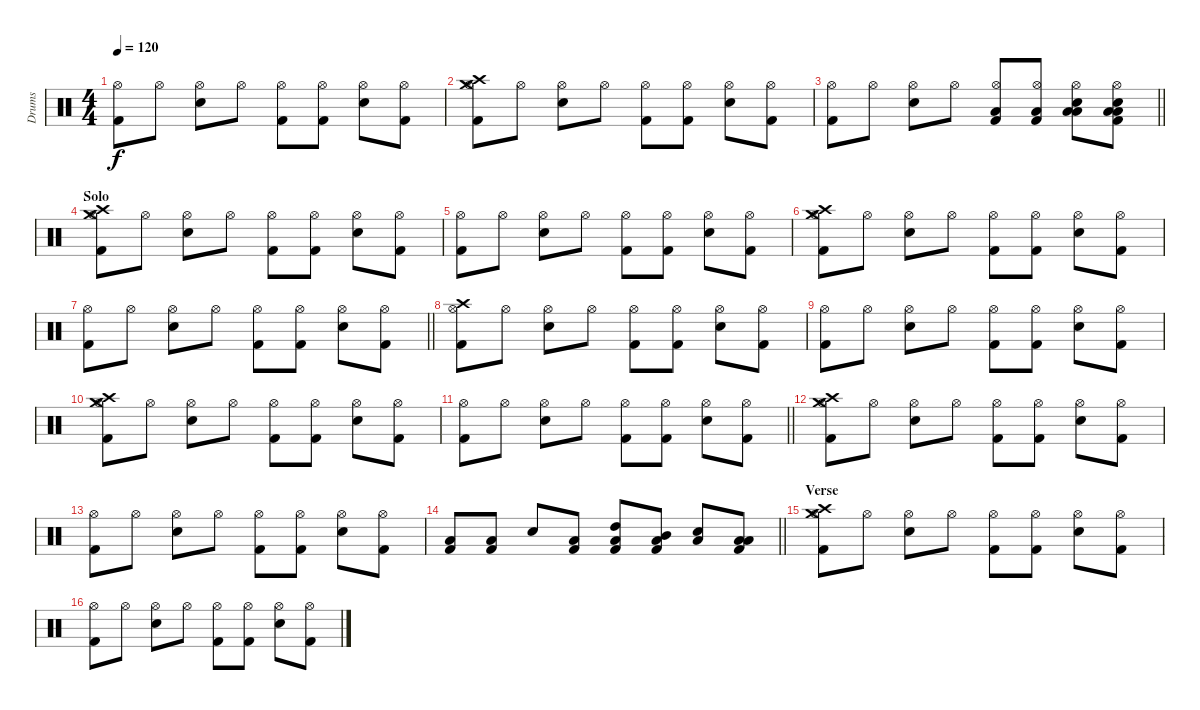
\track ("Drums" "Drums") {instrument percussion}
\staff {score}
\articulation defaults
\ts (4 4)
\tempo 120
\clef neutral
\ks c
("Kick (hit) 2" "Hi-Hat (open)").8{dy f} "Hi-Hat (open)".8 ("Snare (hit) 2" "Hi-Hat (open)").8 "Hi-Hat (open)".8 ("Kick (hit) 2" "Hi-Hat (open)").8 ("Kick (hit) 2" "Hi-Hat (open)").8 ("Snare (hit) 2" "Hi-Hat (open)").8 ("Kick (hit) 2" "Hi-Hat (open)").8 |
("Crash high (hit)" "Crash medium (hit)" "Kick (hit) 2" "Hi-Hat (open)").8 "Hi-Hat (open)".8 ("Snare (hit) 2" "Hi-Hat (open)").8 "Hi-Hat (open)".8 ("Kick (hit) 2" "Hi-Hat (open)").8 ("Kick (hit) 2" "Hi-Hat (open)").8 ("Snare (hit) 2" "Hi-Hat (open)").8 ("Kick (hit) 2" "Hi-Hat (open)").8 |
\barLineRight lightlight
("Kick (hit) 2" "Hi-Hat (open)").8 "Hi-Hat (open)".8 ("Snare (hit) 2" "Hi-Hat (open)").8 "Hi-Hat (open)".8 ("Low Tom (hit)" "Kick (hit) 2" "Hi-Hat (open)").8 ("Low Tom (hit)" "Kick (hit) 2" "Hi-Hat (open)").8 ("Low Tom (hit)" "Low Floor Tom (hit)" "Snare (hit) 2" "Hi-Hat (open)").8 ("Low Tom (hit)" "Low Floor Tom (hit)" "Snare (hit) 2" "Kick (hit) 2" "Hi-Hat (open)").8 |
\section ("" "Solo")
("Crash high (hit)" "Crash medium (hit)" "Kick (hit) 2" "Hi-Hat (open)").8 "Hi-Hat (open)".8 ("Snare (hit) 2" "Hi-Hat (open)").8 "Hi-Hat (open)".8 ("Kick (hit) 2" "Hi-Hat (open)").8 ("Kick (hit) 2" "Hi-Hat (open)").8 ("Snare (hit) 2" "Hi-Hat (open)").8 ("Kick (hit) 2" "Hi-Hat (open)").8 |
("Kick (hit) 2" "Hi-Hat (open)").8 "Hi-Hat (open)".8 ("Snare (hit) 2" "Hi-Hat (open)").8 "Hi-Hat (open)".8 ("Kick (hit) 2" "Hi-Hat (open)").8 ("Kick (hit) 2" "Hi-Hat (open)").8 ("Snare (hit) 2" "Hi-Hat (open)").8 ("Kick (hit) 2" "Hi-Hat (open)").8 |
("Crash high (hit)" "Crash medium (hit)" "Kick (hit) 2" "Hi-Hat (open)").8 "Hi-Hat (open)".8 ("Snare (hit) 2" "Hi-Hat (open)").8 "Hi-Hat (open)".8 ("Kick (hit) 2" "Hi-Hat (open)").8 ("Kick (hit) 2" "Hi-Hat (open)").8 ("Snare (hit) 2" "Hi-Hat (open)").8 ("Kick (hit) 2" "Hi-Hat (open)").8 |
\barLineRight lightlight
("Kick (hit) 2" "Hi-Hat (open)").8 "Hi-Hat (open)".8 ("Snare (hit) 2" "Hi-Hat (open)").8 "Hi-Hat (open)".8 ("Kick (hit) 2" "Hi-Hat (open)").8 ("Kick (hit) 2" "Hi-Hat (open)").8 ("Snare (hit) 2" "Hi-Hat (open)").8 ("Kick (hit) 2" "Hi-Hat (open)").8 |
("Crash high (hit)" "Kick (hit) 2" "Hi-Hat (open)").8 "Hi-Hat (open)".8 ("Snare (hit) 2" "Hi-Hat (open)").8 "Hi-Hat (open)".8 ("Kick (hit) 2" "Hi-Hat (open)").8 ("Kick (hit) 2" "Hi-Hat (open)").8 ("Snare (hit) 2" "Hi-Hat (open)").8 ("Kick (hit) 2" "Hi-Hat (open)").8 |
("Kick (hit) 2" "Hi-Hat (open)").8 "Hi-Hat (open)".8 ("Snare (hit) 2" "Hi-Hat (open)").8 "Hi-Hat (open)".8 ("Kick (hit) 2" "Hi-Hat (open)").8 ("Kick (hit) 2" "Hi-Hat (open)").8 ("Snare (hit) 2" "Hi-Hat (open)").8 ("Kick (hit) 2" "Hi-Hat (open)").8 |
("Crash high (hit)" "Crash medium (hit)" "Kick (hit) 2" "Hi-Hat (open)").8 "Hi-Hat (open)".8 ("Snare (hit) 2" "Hi-Hat (open)").8 "Hi-Hat (open)".8 ("Kick (hit) 2" "Hi-Hat (open)").8 ("Kick (hit) 2" "Hi-Hat (open)").8 ("Snare (hit) 2" "Hi-Hat (open)").8 ("Kick (hit) 2" "Hi-Hat (open)").8 |
\barLineRight lightlight
("Kick (hit) 2" "Hi-Hat (open)").8 "Hi-Hat (open)".8 ("Snare (hit) 2" "Hi-Hat (open)").8 "Hi-Hat (open)".8 ("Kick (hit) 2" "Hi-Hat (open)").8 ("Kick (hit) 2" "Hi-Hat (open)").8 ("Snare (hit) 2" "Hi-Hat (open)").8 ("Kick (hit) 2" "Hi-Hat (open)").8 |
("Crash high (hit)" "Crash medium (hit)" "Kick (hit) 2" "Hi-Hat (open)").8 "Hi-Hat (open)".8 ("Snare (hit) 2" "Hi-Hat (open)").8 "Hi-Hat (open)".8 ("Kick (hit) 2" "Hi-Hat (open)").8 ("Kick (hit) 2" "Hi-Hat (open)").8 ("Snare (hit) 2" "Hi-Hat (open)").8 ("Kick (hit) 2" "Hi-Hat (open)").8 |
("Kick (hit) 2" "Hi-Hat (open)").8 "Hi-Hat (open)".8 ("Snare (hit) 2" "Hi-Hat (open)").8 "Hi-Hat (open)".8 ("Kick (hit) 2" "Hi-Hat (open)").8 ("Kick (hit) 2" "Hi-Hat (open)").8 ("Snare (hit) 2" "Hi-Hat (open)").8 ("Kick (hit) 2" "Hi-Hat (open)").8 |
\barLineRight lightlight
("Kick (hit) 2" "Low Floor Tom (hit)").8 ("Kick (hit) 2" "Low Floor Tom (hit)").8 "Snare (hit) 2".8 ("Kick (hit) 2" "Low Floor Tom (hit)").8 ("High Tom (hit)" "Kick (hit) 2" "Low Floor Tom (hit)").8 ("Mid Tom (hit)" "Kick (hit) 2" "Low Floor Tom (hit)").8 ("Low Tom (hit)" "Snare (hit) 2").8 ("Low Floor Tom (hit)" "Kick (hit) 2" "Low Floor Tom (hit)").8 |
\section ("" "Verse")
("Crash high (hit)" "Crash medium (hit)" "Kick (hit) 2" "Hi-Hat (open)").8 "Hi-Hat (open)".8 ("Snare (hit) 2" "Hi-Hat (open)").8 "Hi-Hat (open)".8 ("Kick (hit) 2" "Hi-Hat (open)").8 ("Kick (hit) 2" "Hi-Hat (open)").8 ("Snare (hit) 2" "Hi-Hat (open)").8 ("Kick (hit) 2" "Hi-Hat (open)").8 |
("Kick (hit) 2" "Hi-Hat (open)").8 "Hi-Hat (open)".8 ("Snare (hit) 2" "Hi-Hat (open)").8 "Hi-Hat (open)".8 ("Kick (hit) 2" "Hi-Hat (open)").8 ("Kick (hit) 2" "Hi-Hat (open)").8 ("Snare (hit) 2" "Hi-Hat (open)").8 ("Kick (hit) 2" "Hi-Hat (open)").8
